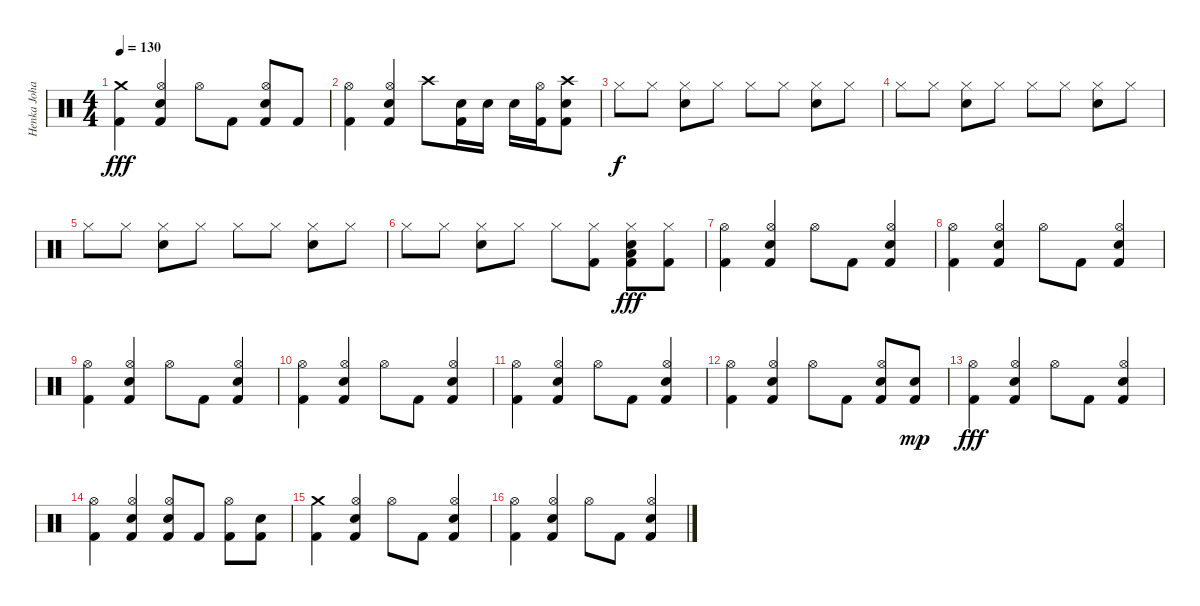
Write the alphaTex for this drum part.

\track ("Henka Johansson" "Henka Joha") {instrument percussion}
\staff {score}
\articulation defaults
\ts (4 4)
\tempo 130
\clef neutral
\ks c
("Crash medium (hit)" "Kick (hit) 2").4{dy fff} ("Hi-Hat (open)" "Electric Snare (hit)" "Kick (hit) 2").4 "Hi-Hat (open)".8 "Kick (hit) 2".8 ("Hi-Hat (open)" "Electric Snare (hit)" "Kick (hit) 2").8 "Kick (hit) 2".8 |
("Hi-Hat (open)" "Kick (hit) 2").4 ("Hi-Hat (open)" "Electric Snare (hit)" "Kick (hit) 2").4 "Crash high (hit)".8 ("Electric Snare (hit)" "Kick (hit) 2").16 "Electric Snare (hit)".16 "Electric Snare (hit)".16 ("Hi-Hat (open)" "Kick (hit) 2").16 ("Crash high (hit)" "Electric Snare (hit)" "Kick (hit) 2").8 |
"Hi-Hat (closed)".8{dy f} "Hi-Hat (closed)".8 ("Hi-Hat (closed)" "Electric Snare (hit)").8 "Hi-Hat (closed)".8 "Hi-Hat (closed)".8 "Hi-Hat (closed)".8 ("Hi-Hat (closed)" "Electric Snare (hit)").8 "Hi-Hat (closed)".8 |
"Hi-Hat (closed)".8 "Hi-Hat (closed)".8 ("Hi-Hat (closed)" "Electric Snare (hit)").8 "Hi-Hat (closed)".8 "Hi-Hat (closed)".8 "Hi-Hat (closed)".8 ("Hi-Hat (closed)" "Electric Snare (hit)").8 "Hi-Hat (closed)".8 |
"Hi-Hat (closed)".8 "Hi-Hat (closed)".8 ("Hi-Hat (closed)" "Electric Snare (hit)").8 "Hi-Hat (closed)".8 "Hi-Hat (closed)".8 "Hi-Hat (closed)".8 ("Hi-Hat (closed)" "Electric Snare (hit)").8 "Hi-Hat (closed)".8 |
"Hi-Hat (closed)".8 "Hi-Hat (closed)".8 ("Hi-Hat (closed)" "Electric Snare (hit)").8 "Hi-Hat (closed)".8 "Hi-Hat (closed)".8 ("Hi-Hat (closed)" "Kick (hit) 2").8 ("Low Tom (hit)" "Hi-Hat (closed)" "Electric Snare (hit)" "Kick (hit) 2").8{dy fff} ("Hi-Hat (closed)" "Kick (hit) 2").8 |
("Hi-Hat (open)" "Kick (hit) 2").4 ("Hi-Hat (open)" "Electric Snare (hit)" "Kick (hit) 2").4 "Hi-Hat (open)".8 "Kick (hit) 2".8 ("Hi-Hat (open)" "Electric Snare (hit)" "Kick (hit) 2").4 |
("Hi-Hat (open)" "Kick (hit) 2").4 ("Hi-Hat (open)" "Electric Snare (hit)" "Kick (hit) 2").4 "Hi-Hat (open)".8 "Kick (hit) 2".8 ("Hi-Hat (open)" "Electric Snare (hit)" "Kick (hit) 2").4 |
("Hi-Hat (open)" "Kick (hit) 2").4 ("Hi-Hat (open)" "Electric Snare (hit)" "Kick (hit) 2").4 "Hi-Hat (open)".8 "Kick (hit) 2".8 ("Hi-Hat (open)" "Electric Snare (hit)" "Kick (hit) 2").4 |
("Hi-Hat (open)" "Kick (hit) 2").4 ("Hi-Hat (open)" "Electric Snare (hit)" "Kick (hit) 2").4 "Hi-Hat (open)".8 "Kick (hit) 2".8 ("Hi-Hat (open)" "Electric Snare (hit)" "Kick (hit) 2").4 |
("Hi-Hat (open)" "Kick (hit) 2").4 ("Hi-Hat (open)" "Electric Snare (hit)" "Kick (hit) 2").4 "Hi-Hat (open)".8 "Kick (hit) 2".8 ("Hi-Hat (open)" "Electric Snare (hit)" "Kick (hit) 2").4 |
("Hi-Hat (open)" "Kick (hit) 2").4 ("Hi-Hat (open)" "Electric Snare (hit)" "Kick (hit) 2").4 "Hi-Hat (open)".8 "Kick (hit) 2".8 ("Hi-Hat (open)" "Electric Snare (hit)" "Kick (hit) 2").8 ("Electric Snare (hit)" "Kick (hit) 2").8{dy mp} |
("Hi-Hat (open)" "Kick (hit) 2").4{dy fff} ("Hi-Hat (open)" "Electric Snare (hit)" "Kick (hit) 2").4 "Hi-Hat (open)".8 "Kick (hit) 2".8 ("Hi-Hat (open)" "Electric Snare (hit)" "Kick (hit) 2").4 |
("Hi-Hat (open)" "Kick (hit) 2").4 ("Hi-Hat (open)" "Electric Snare (hit)" "Kick (hit) 2").4 ("Hi-Hat (open)" "Electric Snare (hit)" "Kick (hit) 2").8 "Kick (hit) 2".8 ("Hi-Hat (open)" "Kick (hit) 2").8 ("Electric Snare (hit)" "Kick (hit) 2").8 |
("Crash medium (hit)" "Kick (hit) 2").4 ("Hi-Hat (open)" "Electric Snare (hit)" "Kick (hit) 2").4 "Hi-Hat (open)".8 "Kick (hit) 2".8 ("Hi-Hat (open)" "Electric Snare (hit)" "Kick (hit) 2").4 |
("Hi-Hat (open)" "Kick (hit) 2").4 ("Hi-Hat (open)" "Electric Snare (hit)" "Kick (hit) 2").4 "Hi-Hat (open)".8 "Kick (hit) 2".8 ("Hi-Hat (open)" "Electric Snare (hit)" "Kick (hit) 2").4
